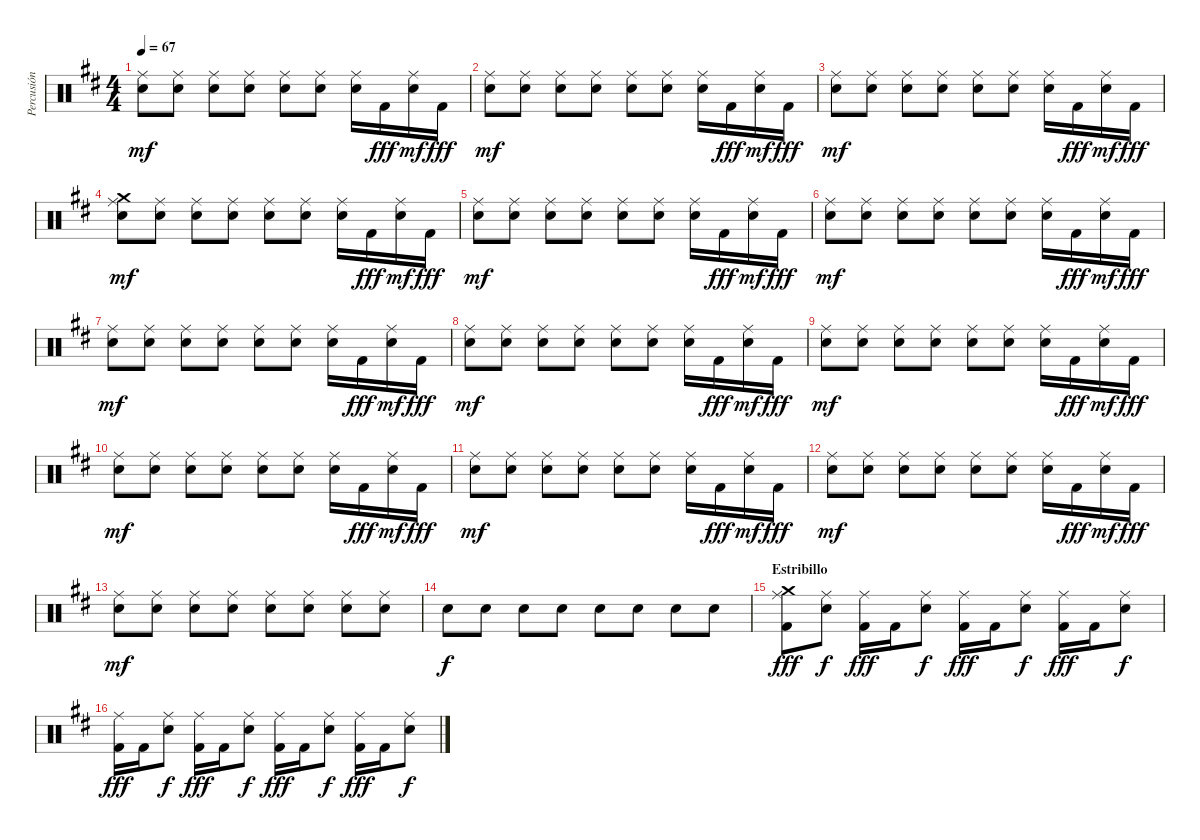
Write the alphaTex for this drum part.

\track ("Percusión" "Percusión") {instrument percussion}
\staff {score}
\articulation defaults
\ts (4 4)
\tempo 67
\clef neutral
\ks bminor
("Snare (hit) 2" "Ride (middle)").8{dy mf} ("Snare (hit) 2" "Ride (middle)").8 ("Snare (hit) 2" "Ride (middle)").8 ("Snare (hit) 2" "Ride (middle)").8 ("Snare (hit) 2" "Ride (middle)").8 ("Snare (hit) 2" "Ride (middle)").8 ("Snare (hit) 2" "Ride (middle)").16 "Kick (hit) 2".16{dy fff} ("Snare (hit) 2" "Ride (middle)").16{dy mf} "Kick (hit) 2".16{dy fff} |
("Snare (hit) 2" "Ride (middle)").8{dy mf} ("Snare (hit) 2" "Ride (middle)").8 ("Snare (hit) 2" "Ride (middle)").8 ("Snare (hit) 2" "Ride (middle)").8 ("Snare (hit) 2" "Ride (middle)").8 ("Snare (hit) 2" "Ride (middle)").8 ("Snare (hit) 2" "Ride (middle)").16 "Kick (hit) 2".16{dy fff} ("Snare (hit) 2" "Ride (middle)").16{dy mf} "Kick (hit) 2".16{dy fff} |
("Snare (hit) 2" "Ride (middle)").8{dy mf} ("Snare (hit) 2" "Ride (middle)").8 ("Snare (hit) 2" "Ride (middle)").8 ("Snare (hit) 2" "Ride (middle)").8 ("Snare (hit) 2" "Ride (middle)").8 ("Snare (hit) 2" "Ride (middle)").8 ("Snare (hit) 2" "Ride (middle)").16 "Kick (hit) 2".16{dy fff} ("Snare (hit) 2" "Ride (middle)").16{dy mf} "Kick (hit) 2".16{dy fff} |
("Snare (hit) 2" "Ride (middle)" "Crash medium (hit)").8{dy mf} ("Snare (hit) 2" "Ride (middle)").8 ("Snare (hit) 2" "Ride (middle)").8 ("Snare (hit) 2" "Ride (middle)").8 ("Snare (hit) 2" "Ride (middle)").8 ("Snare (hit) 2" "Ride (middle)").8 ("Snare (hit) 2" "Ride (middle)").16 "Kick (hit) 2".16{dy fff} ("Snare (hit) 2" "Ride (middle)").16{dy mf} "Kick (hit) 2".16{dy fff} |
("Snare (hit) 2" "Ride (middle)").8{dy mf} ("Snare (hit) 2" "Ride (middle)").8 ("Snare (hit) 2" "Ride (middle)").8 ("Snare (hit) 2" "Ride (middle)").8 ("Snare (hit) 2" "Ride (middle)").8 ("Snare (hit) 2" "Ride (middle)").8 ("Snare (hit) 2" "Ride (middle)").16 "Kick (hit) 2".16{dy fff} ("Snare (hit) 2" "Ride (middle)").16{dy mf} "Kick (hit) 2".16{dy fff} |
("Snare (hit) 2" "Ride (middle)").8{dy mf} ("Snare (hit) 2" "Ride (middle)").8 ("Snare (hit) 2" "Ride (middle)").8 ("Snare (hit) 2" "Ride (middle)").8 ("Snare (hit) 2" "Ride (middle)").8 ("Snare (hit) 2" "Ride (middle)").8 ("Snare (hit) 2" "Ride (middle)").16 "Kick (hit) 2".16{dy fff} ("Snare (hit) 2" "Ride (middle)").16{dy mf} "Kick (hit) 2".16{dy fff} |
("Snare (hit) 2" "Ride (middle)").8{dy mf} ("Snare (hit) 2" "Ride (middle)").8 ("Snare (hit) 2" "Ride (middle)").8 ("Snare (hit) 2" "Ride (middle)").8 ("Snare (hit) 2" "Ride (middle)").8 ("Snare (hit) 2" "Ride (middle)").8 ("Snare (hit) 2" "Ride (middle)").16 "Kick (hit) 2".16{dy fff} ("Snare (hit) 2" "Ride (middle)").16{dy mf} "Kick (hit) 2".16{dy fff} |
("Snare (hit) 2" "Ride (middle)").8{dy mf} ("Snare (hit) 2" "Ride (middle)").8 ("Snare (hit) 2" "Ride (middle)").8 ("Snare (hit) 2" "Ride (middle)").8 ("Snare (hit) 2" "Ride (middle)").8 ("Snare (hit) 2" "Ride (middle)").8 ("Snare (hit) 2" "Ride (middle)").16 "Kick (hit) 2".16{dy fff} ("Snare (hit) 2" "Ride (middle)").16{dy mf} "Kick (hit) 2".16{dy fff} |
("Snare (hit) 2" "Ride (middle)").8{dy mf} ("Snare (hit) 2" "Ride (middle)").8 ("Snare (hit) 2" "Ride (middle)").8 ("Snare (hit) 2" "Ride (middle)").8 ("Snare (hit) 2" "Ride (middle)").8 ("Snare (hit) 2" "Ride (middle)").8 ("Snare (hit) 2" "Ride (middle)").16 "Kick (hit) 2".16{dy fff} ("Snare (hit) 2" "Ride (middle)").16{dy mf} "Kick (hit) 2".16{dy fff} |
("Snare (hit) 2" "Ride (middle)").8{dy mf} ("Snare (hit) 2" "Ride (middle)").8 ("Snare (hit) 2" "Ride (middle)").8 ("Snare (hit) 2" "Ride (middle)").8 ("Snare (hit) 2" "Ride (middle)").8 ("Snare (hit) 2" "Ride (middle)").8 ("Snare (hit) 2" "Ride (middle)").16 "Kick (hit) 2".16{dy fff} ("Snare (hit) 2" "Ride (middle)").16{dy mf} "Kick (hit) 2".16{dy fff} |
("Snare (hit) 2" "Ride (middle)").8{dy mf} ("Snare (hit) 2" "Ride (middle)").8 ("Snare (hit) 2" "Ride (middle)").8 ("Snare (hit) 2" "Ride (middle)").8 ("Snare (hit) 2" "Ride (middle)").8 ("Snare (hit) 2" "Ride (middle)").8 ("Snare (hit) 2" "Ride (middle)").16 "Kick (hit) 2".16{dy fff} ("Snare (hit) 2" "Ride (middle)").16{dy mf} "Kick (hit) 2".16{dy fff} |
("Snare (hit) 2" "Ride (middle)").8{dy mf} ("Snare (hit) 2" "Ride (middle)").8 ("Snare (hit) 2" "Ride (middle)").8 ("Snare (hit) 2" "Ride (middle)").8 ("Snare (hit) 2" "Ride (middle)").8 ("Snare (hit) 2" "Ride (middle)").8 ("Snare (hit) 2" "Ride (middle)").16 "Kick (hit) 2".16{dy fff} ("Snare (hit) 2" "Ride (middle)").16{dy mf} "Kick (hit) 2".16{dy fff} |
("Snare (hit) 2" "Ride (middle)").8{dy mf} ("Snare (hit) 2" "Ride (middle)").8 ("Snare (hit) 2" "Ride (middle)").8 ("Snare (hit) 2" "Ride (middle)").8 ("Snare (hit) 2" "Ride (middle)").8 ("Snare (hit) 2" "Ride (middle)").8 ("Snare (hit) 2" "Ride (middle)").8 ("Snare (hit) 2" "Ride (middle)").8 |
"Snare (hit) 2".8{dy f} "Snare (hit) 2".8 "Snare (hit) 2".8 "Snare (hit) 2".8 "Snare (hit) 2".8 "Snare (hit) 2".8 "Snare (hit) 2".8 "Snare (hit) 2".8 |
\section ("" "Estribillo")
("Ride (middle)" "Kick (hit) 2" "Crash medium (hit)").8{dy fff} ("Snare (hit) 2" "Ride (middle)").8{dy f} ("Ride (middle)" "Kick (hit) 2").16{dy fff} "Kick (hit) 2".16 ("Snare (hit) 2" "Ride (middle)").8{dy f} ("Ride (middle)" "Kick (hit) 2").16{dy fff} "Kick (hit) 2".16 ("Snare (hit) 2" "Ride (middle)").8{dy f} ("Ride (middle)" "Kick (hit) 2").16{dy fff} "Kick (hit) 2".16 ("Snare (hit) 2" "Ride (middle)").8{dy f} |
("Ride (middle)" "Kick (hit) 2").16{dy fff} "Kick (hit) 2".16 ("Snare (hit) 2" "Ride (middle)").8{dy f} ("Ride (middle)" "Kick (hit) 2").16{dy fff} "Kick (hit) 2".16 ("Snare (hit) 2" "Ride (middle)").8{dy f} ("Ride (middle)" "Kick (hit) 2").16{dy fff} "Kick (hit) 2".16 ("Snare (hit) 2" "Ride (middle)").8{dy f} ("Ride (middle)" "Kick (hit) 2").16{dy fff} "Kick (hit) 2".16 ("Snare (hit) 2" "Ride (middle)").8{dy f}
